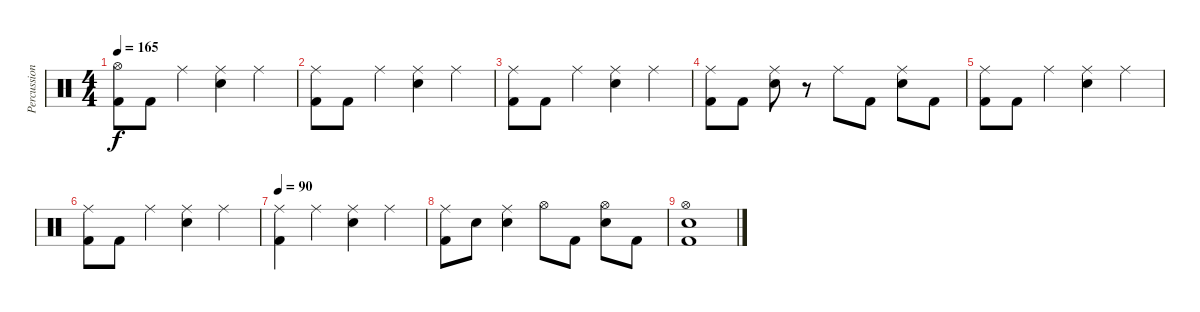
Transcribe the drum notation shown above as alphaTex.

\track ("Percussion" "Percussion") {instrument percussion}
\staff {score}
\articulation defaults
\ts (4 4)
\tempo 165
\clef neutral
\ks c
("Hi-Hat (open)" "Kick (hit) 2").8{dy f} "Kick (hit) 2".8 "Ride (middle)".4 ("Ride (middle)" "Electric Snare (hit)").4 "Ride (middle)".4 |
("Ride (middle)" "Kick (hit) 2").8 "Kick (hit) 2".8 "Ride (middle)".4 ("Ride (middle)" "Electric Snare (hit)").4 "Ride (middle)".4 |
("Ride (middle)" "Kick (hit) 2").8 "Kick (hit) 2".8 "Ride (middle)".4 ("Ride (middle)" "Electric Snare (hit)").4 "Ride (middle)".4 |
("Ride (middle)" "Kick (hit) 2").8 "Kick (hit) 2".8 ("Ride (middle)" "Electric Snare (hit)").8 r.8 "Ride (middle)".8 "Kick (hit) 2".8 ("Ride (middle)" "Electric Snare (hit)").8 "Kick (hit) 2".8 |
("Ride (middle)" "Kick (hit) 2").8 "Kick (hit) 2".8 "Ride (middle)".4 ("Ride (middle)" "Electric Snare (hit)").4 "Ride (middle)".4 |
("Ride (middle)" "Kick (hit) 2").8 "Kick (hit) 2".8 "Ride (middle)".4 ("Ride (middle)" "Electric Snare (hit)").4 "Ride (middle)".4 |
\tempo 90
("Ride (middle)" "Kick (hit) 2").4 "Ride (middle)".4 ("Ride (middle)" "Electric Snare (hit)").4 "Ride (middle)".4 |
("Ride (middle)" "Kick (hit) 2").8 "Electric Snare (hit)".8 ("Ride (middle)" "Electric Snare (hit)").4 "Hi-Hat (open)".8 "Kick (hit) 2".8 ("Hi-Hat (open)" "Electric Snare (hit)").8 "Kick (hit) 2".8 |
("Hi-Hat (open)" "Electric Snare (hit)" "Kick (hit) 2").1
